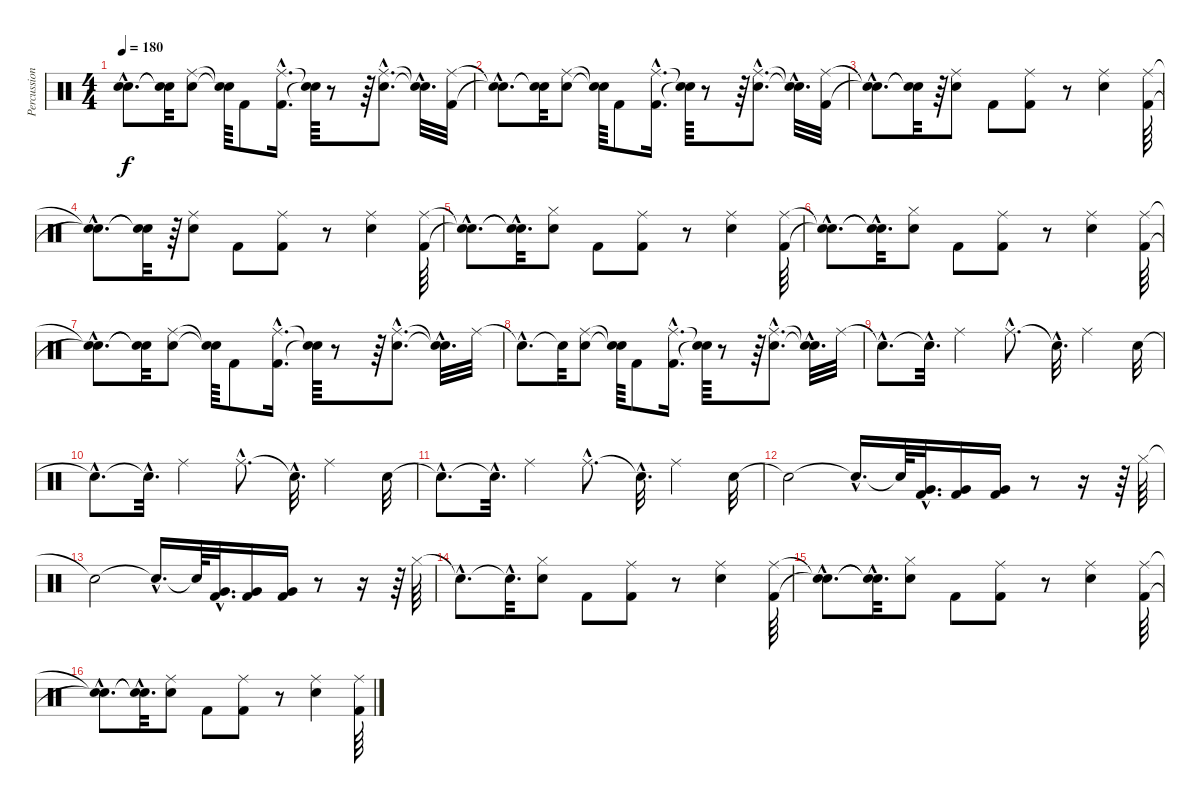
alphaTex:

\track ("Percussion" "Percussion") {instrument percussion}
\staff {score}
\articulation defaults
\ts (4 4)
\tempo 180
\clef neutral
\ks c
("Snare (hit)"{hac t} "Snare (hit)"{hac t}).8{d dy f} ("Snare (hit)"{t} "Snare (hit)"{t}).32 ("Ride (middle)" "Snare (hit) 2").8 ("Snare (hit)"{t} "Snare (hit)"{t}).64 "Kick (hit) 2".8 ("Kick (hit) 2"{hac} "Ride (middle)"{hac}).16{d} ("Snare (hit)"{t} "Snare (hit)"{t}).64 r.8 r.64 ("Ride (middle)"{hac} "Snare (hit) 2"{hac}).8{d} ("Snare (hit)"{hac t} "Snare (hit)"{hac t}).32{d} ("Ride (middle)" "Kick (hit) 2").32 |
("Snare (hit)"{hac t} "Snare (hit)"{hac t}).8{d} ("Snare (hit)"{t} "Snare (hit)"{t}).32 ("Ride (middle)" "Snare (hit) 2").8 ("Snare (hit)"{t} "Snare (hit)"{t}).64 "Kick (hit) 2".8 ("Kick (hit) 2"{hac} "Ride (middle)"{hac}).16{d} ("Snare (hit)"{t} "Snare (hit)"{t}).64 r.8 r.64 ("Ride (middle)"{hac} "Snare (hit) 2"{hac}).8{d} ("Snare (hit)"{hac t} "Snare (hit)"{hac t}).32{d} ("Ride (middle)" "Kick (hit) 2").32 |
("Snare (hit)"{hac t} "Snare (hit)"{hac t}).8{d} ("Snare (hit)"{t} "Snare (hit)"{t}).32 r.64 ("Ride (middle)" "Snare (hit) 2").8 "Kick (hit) 2".8 ("Kick (hit) 2" "Ride (middle)").8 r.8 ("Snare (hit) 2" "Ride (middle)").4 ("Kick (hit) 2" "Ride (middle)").64 |
("Snare (hit)"{hac t} "Snare (hit)"{hac t}).8{d} ("Snare (hit)"{t} "Snare (hit)"{t}).32 r.64 ("Ride (middle)" "Snare (hit) 2").8 "Kick (hit) 2".8 ("Kick (hit) 2" "Ride (middle)").8 r.8 ("Snare (hit) 2" "Ride (middle)").4 ("Kick (hit) 2" "Ride (middle)").64 |
("Snare (hit)"{hac t} "Snare (hit)"{hac t}).8{d} ("Snare (hit)"{hac t} "Snare (hit)"{hac t}).32{d} ("Hi-Hat (closed)" "Snare (hit) 2").8 "Kick (hit) 2".8 ("Ride (middle)" "Kick (hit) 2").8 r.8 ("Ride (middle)" "Snare (hit) 2").4 ("Ride (middle)" "Kick (hit) 2").64 |
("Snare (hit)"{hac t} "Snare (hit)"{hac t}).8{d} ("Snare (hit)"{hac t} "Snare (hit)"{hac t}).32{d} ("Hi-Hat (closed)" "Snare (hit) 2").8 "Kick (hit) 2".8 ("Ride (middle)" "Kick (hit) 2").8 r.8 ("Ride (middle)" "Snare (hit) 2").4 ("Ride (middle)" "Kick (hit) 2").64 |
("Snare (hit)"{hac t} "Snare (hit)"{hac t}).8{d} ("Snare (hit)"{t} "Snare (hit)"{t}).32 ("Ride (middle)" "Snare (hit) 2").8 ("Snare (hit)"{t} "Snare (hit)"{t}).64 "Kick (hit) 2".8 ("Ride (middle)"{hac} "Kick (hit) 2"{hac}).16{d} ("Snare (hit)"{t} "Snare (hit)"{t}).64 r.8 r.64 ("Ride (middle)"{hac} "Snare (hit) 2"{hac}).8{d} ("Snare (hit)"{hac t} "Snare (hit)"{hac t}).32{d} "Ride (middle)".32 |
"Snare (hit)"{hac t}.8{d} "Snare (hit)"{t}.32 ("Ride (middle)" "Snare (hit) 2").8 ("Snare (hit)"{t} "Snare (hit)"{t}).64 "Kick (hit) 2".8 ("Ride (middle)"{hac} "Kick (hit) 2"{hac}).16{d} ("Snare (hit)"{t} "Snare (hit)"{t}).64 r.8 r.64 ("Ride (middle)"{hac} "Snare (hit) 2"{hac}).8{d} ("Snare (hit)"{hac t} "Snare (hit)"{hac t}).32{d} "Ride (middle)".32 |
"Snare (hit)"{hac t}.8{d} "Snare (hit)"{hac t}.32{d} "Ride (middle)".4 "Ride (middle)"{hac}.8{d} "Snare (hit)"{hac t}.32{d} "Ride (middle)".4 "Snare (hit) 2".32 |
"Snare (hit)"{hac t}.8{d} "Snare (hit)"{hac t}.32{d} "Ride (middle)".4 "Ride (middle)"{hac}.8{d} "Snare (hit)"{hac t}.32{d} "Ride (middle)".4 "Snare (hit) 2".32 |
"Snare (hit)"{hac t}.8{d} "Snare (hit)"{hac t}.32{d} "Ride (middle)".4 "Ride (middle)"{hac}.8{d} "Snare (hit)"{hac t}.32{d} "Ride (middle)".4 "Snare (hit) 2".32 |
"Snare (hit)"{t}.2 "Snare (hit)"{hac t}.16{d} "Snare (hit)"{t}.64 ("Kick (hit) 2"{hac} "Very Low Tom (hit)"{hac}).32{d} ("Kick (hit) 2" "Very Low Tom (hit)").16 ("Very Low Tom (hit)" "Kick (hit) 2").16 r.8 r.16 r.64 "Hi-Hat (closed)".64 |
"Snare (hit)"{t}.2 "Snare (hit)"{hac t}.16{d} "Snare (hit)"{t}.64 ("Kick (hit) 2"{hac} "Very Low Tom (hit)"{hac}).32{d} ("Kick (hit) 2" "Very Low Tom (hit)").16 ("Very Low Tom (hit)" "Kick (hit) 2").16 r.8 r.16 r.64 "Hi-Hat (closed)".64 |
"Snare (hit)"{hac t}.8{d} "Snare (hit)"{hac t}.32{d} ("Hi-Hat (closed)" "Snare (hit) 2").8 "Kick (hit) 2".8 ("Ride (middle)" "Kick (hit) 2").8 r.8 ("Ride (middle)" "Snare (hit) 2").4 ("Ride (middle)" "Kick (hit) 2").64 |
("Snare (hit)"{hac t} "Snare (hit)"{hac t}).8{d} ("Snare (hit)"{hac t} "Snare (hit)"{hac t}).32{d} ("Hi-Hat (closed)" "Snare (hit) 2").8 "Kick (hit) 2".8 ("Ride (middle)" "Kick (hit) 2").8 r.8 ("Ride (middle)" "Snare (hit) 2").4 ("Ride (middle)" "Kick (hit) 2").64 |
("Snare (hit)"{hac t} "Snare (hit)"{hac t}).8{d} ("Snare (hit)"{hac t} "Snare (hit)"{hac t}).32{d} ("Snare (hit) 2" "Ride (middle)").8 "Kick (hit) 2".8 ("Kick (hit) 2" "Ride (middle)").8 r.8 ("Ride (middle)" "Snare (hit) 2").4 ("Kick (hit) 2" "Ride (middle)").64
